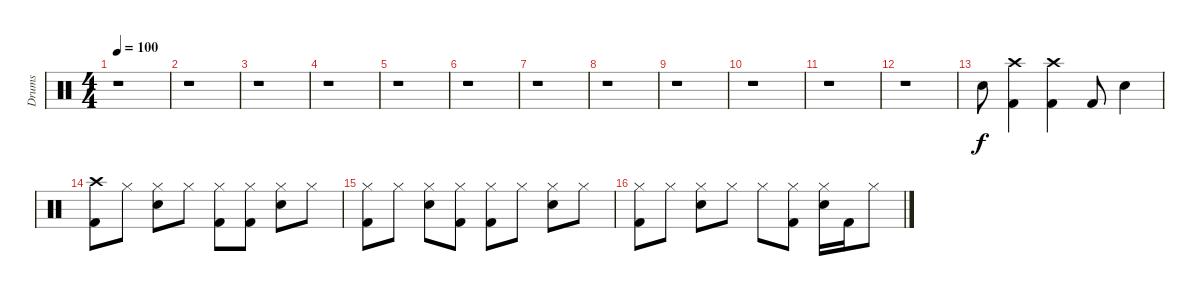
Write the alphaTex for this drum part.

\track ("Drums" "Drums") {instrument percussion}
\staff {score}
\articulation defaults
\ts (4 4)
\tempo 100
\clef neutral
\ks c
r.1{dy f} |
r.1 |
r.1 |
r.1 |
r.1 |
r.1 |
r.1 |
r.1 |
r.1 |
r.1 |
r.1 |
r.1 |
"Electric Snare (hit)".8 ("Crash high (hit)" "Kick (hit) 2").4 ("Crash high (hit)" "Kick (hit) 2").4 "Kick (hit) 2".8 "Electric Snare (hit)".4 |
("Crash high (hit)" "Kick (hit) 2").8 "Hi-Hat (closed)".8 ("Hi-Hat (closed)" "Electric Snare (hit)").8 "Hi-Hat (closed)".8 ("Hi-Hat (closed)" "Kick (hit) 2").8 ("Hi-Hat (closed)" "Kick (hit) 2").8 ("Hi-Hat (closed)" "Electric Snare (hit)").8 "Hi-Hat (closed)".8 |
("Hi-Hat (closed)" "Kick (hit) 2").8 "Hi-Hat (closed)".8 ("Hi-Hat (closed)" "Electric Snare (hit)").8 ("Hi-Hat (closed)" "Kick (hit) 2").8 ("Hi-Hat (closed)" "Kick (hit) 2").8 "Hi-Hat (closed)".8 ("Hi-Hat (closed)" "Electric Snare (hit)").8 "Hi-Hat (closed)".8 |
("Hi-Hat (closed)" "Kick (hit) 2").8 "Hi-Hat (closed)".8 ("Hi-Hat (closed)" "Electric Snare (hit)").8 "Hi-Hat (closed)".8 "Hi-Hat (closed)".8 ("Hi-Hat (closed)" "Kick (hit) 2").8 ("Hi-Hat (closed)" "Electric Snare (hit)").16 "Kick (hit) 2".16 "Hi-Hat (closed)".8
